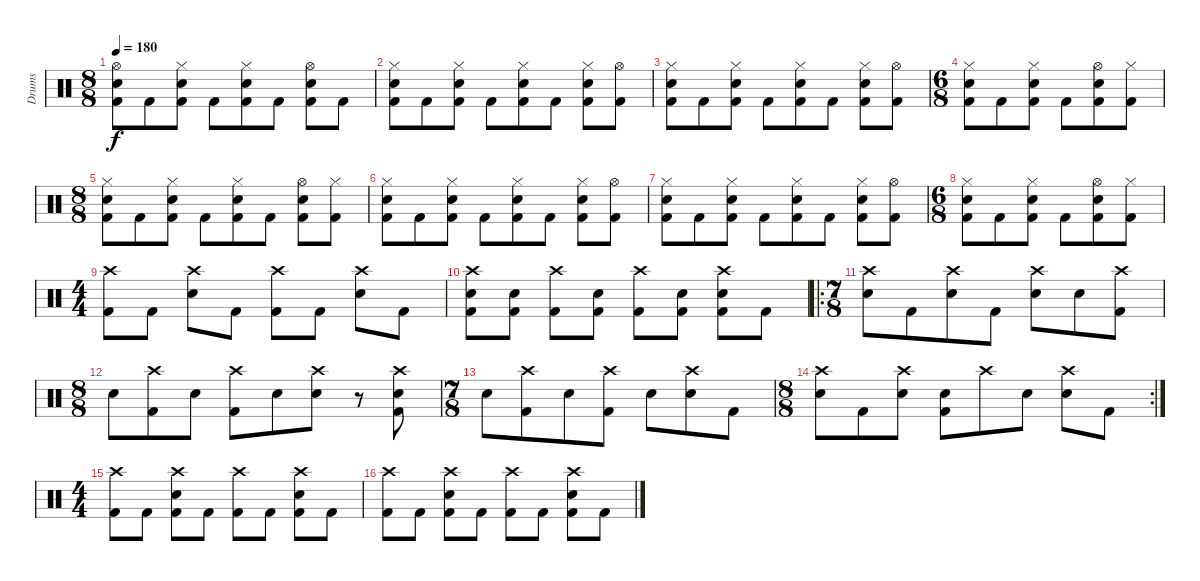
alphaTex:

\track ("Drums" "Drums") {instrument percussion}
\staff {score}
\articulation defaults
\ts (8 8)
\tempo 180
\clef neutral
\ks c
("Hi-Hat (open)" "Electric Snare (hit)" "Kick (hit) 2").8{dy f} "Kick (hit) 2".8 ("Hi-Hat (closed)" "Electric Snare (hit)" "Kick (hit) 2").8 "Kick (hit) 2".8 ("Hi-Hat (closed)" "Electric Snare (hit)" "Kick (hit) 2").8 "Kick (hit) 2".8 ("Hi-Hat (open)" "Electric Snare (hit)" "Kick (hit) 2").8 "Kick (hit) 2".8 |
("Hi-Hat (closed)" "Electric Snare (hit)" "Kick (hit) 2").8 "Kick (hit) 2".8 ("Hi-Hat (closed)" "Electric Snare (hit)" "Kick (hit) 2").8 "Kick (hit) 2".8 ("Hi-Hat (closed)" "Electric Snare (hit)" "Kick (hit) 2").8 "Kick (hit) 2".8 ("Hi-Hat (closed)" "Electric Snare (hit)" "Kick (hit) 2").8 ("Hi-Hat (open)" "Kick (hit) 2").8 |
("Hi-Hat (closed)" "Electric Snare (hit)" "Kick (hit) 2").8 "Kick (hit) 2".8 ("Hi-Hat (closed)" "Electric Snare (hit)" "Kick (hit) 2").8 "Kick (hit) 2".8 ("Hi-Hat (closed)" "Electric Snare (hit)" "Kick (hit) 2").8 "Kick (hit) 2".8 ("Hi-Hat (closed)" "Electric Snare (hit)" "Kick (hit) 2").8 ("Hi-Hat (open)" "Kick (hit) 2").8 |
\ts (6 8)
("Hi-Hat (closed)" "Electric Snare (hit)" "Kick (hit) 2").8 "Kick (hit) 2".8 ("Hi-Hat (closed)" "Electric Snare (hit)" "Kick (hit) 2").8 "Kick (hit) 2".8 ("Hi-Hat (open)" "Electric Snare (hit)" "Kick (hit) 2").8 ("Hi-Hat (closed)" "Kick (hit) 2").8 |
\ts (8 8)
("Hi-Hat (closed)" "Electric Snare (hit)" "Kick (hit) 2").8 "Kick (hit) 2".8 ("Hi-Hat (closed)" "Electric Snare (hit)" "Kick (hit) 2").8 "Kick (hit) 2".8 ("Hi-Hat (closed)" "Electric Snare (hit)" "Kick (hit) 2").8 "Kick (hit) 2".8 ("Hi-Hat (open)" "Electric Snare (hit)" "Kick (hit) 2").8 ("Hi-Hat (closed)" "Kick (hit) 2").8 |
("Hi-Hat (closed)" "Electric Snare (hit)" "Kick (hit) 2").8 "Kick (hit) 2".8 ("Hi-Hat (closed)" "Electric Snare (hit)" "Kick (hit) 2").8 "Kick (hit) 2".8 ("Hi-Hat (closed)" "Electric Snare (hit)" "Kick (hit) 2").8 "Kick (hit) 2".8 ("Hi-Hat (closed)" "Electric Snare (hit)" "Kick (hit) 2").8 ("Hi-Hat (open)" "Kick (hit) 2").8 |
("Hi-Hat (closed)" "Electric Snare (hit)" "Kick (hit) 2").8 "Kick (hit) 2".8 ("Hi-Hat (closed)" "Electric Snare (hit)" "Kick (hit) 2").8 "Kick (hit) 2".8 ("Hi-Hat (closed)" "Electric Snare (hit)" "Kick (hit) 2").8 "Kick (hit) 2".8 ("Hi-Hat (closed)" "Electric Snare (hit)" "Kick (hit) 2").8 ("Hi-Hat (open)" "Kick (hit) 2").8 |
\ts (6 8)
("Hi-Hat (closed)" "Electric Snare (hit)" "Kick (hit) 2").8 "Kick (hit) 2".8 ("Hi-Hat (closed)" "Electric Snare (hit)" "Kick (hit) 2").8 "Kick (hit) 2".8 ("Hi-Hat (open)" "Electric Snare (hit)" "Kick (hit) 2").8 ("Hi-Hat (closed)" "Kick (hit) 2").8 |
\ts (4 4)
("Crash high (hit)" "Kick (hit) 2").8 "Kick (hit) 2".8 ("Crash high (hit)" "Electric Snare (hit)").8 "Kick (hit) 2".8 ("Crash high (hit)" "Kick (hit) 2").8 "Kick (hit) 2".8 ("Crash high (hit)" "Electric Snare (hit)").8 "Kick (hit) 2".8 |
("Crash high (hit)" "Electric Snare (hit)" "Kick (hit) 2").8 ("Electric Snare (hit)" "Kick (hit) 2").8 ("Crash high (hit)" "Kick (hit) 2").8 ("Electric Snare (hit)" "Kick (hit) 2").8 ("Crash high (hit)" "Kick (hit) 2").8 ("Electric Snare (hit)" "Kick (hit) 2").8 ("Crash high (hit)" "Electric Snare (hit)" "Kick (hit) 2").8 "Kick (hit) 2".8 |
\ro
\ts (7 8)
("Crash high (hit)" "Electric Snare (hit)").8 "Kick (hit) 2".8 ("Crash high (hit)" "Electric Snare (hit)").8 "Kick (hit) 2".8 ("Crash high (hit)" "Electric Snare (hit)").8 "Electric Snare (hit)".8 ("Crash high (hit)" "Kick (hit) 2").8 |
\ts (8 8)
"Electric Snare (hit)".8 ("Crash high (hit)" "Kick (hit) 2").8 "Electric Snare (hit)".8 ("Crash high (hit)" "Kick (hit) 2").8 "Electric Snare (hit)".8 ("Crash high (hit)" "Electric Snare (hit)").8 r.8 ("Crash high (hit)" "Electric Snare (hit)" "Kick (hit) 2").8 |
\ts (7 8)
"Electric Snare (hit)".8 ("Crash high (hit)" "Kick (hit) 2").8 "Electric Snare (hit)".8 ("Crash high (hit)" "Kick (hit) 2").8 "Electric Snare (hit)".8 ("Crash high (hit)" "Electric Snare (hit)").8 "Kick (hit) 2".8 |
\rc 2
\ts (8 8)
("Crash high (hit)" "Electric Snare (hit)").8 "Kick (hit) 2".8 ("Crash high (hit)" "Electric Snare (hit)").8 ("Electric Snare (hit)" "Kick (hit) 2").8 "Crash high (hit)".8 "Electric Snare (hit)".8 ("Crash high (hit)" "Electric Snare (hit)").8 "Kick (hit) 2".8 |
\ts (4 4)
("Crash high (hit)" "Kick (hit) 2").8 "Kick (hit) 2".8 ("Crash high (hit)" "Electric Snare (hit)" "Kick (hit) 2").8 "Kick (hit) 2".8 ("Crash high (hit)" "Kick (hit) 2").8 "Kick (hit) 2".8 ("Crash high (hit)" "Electric Snare (hit)" "Kick (hit) 2").8 "Kick (hit) 2".8 |
("Crash high (hit)" "Kick (hit) 2").8 "Kick (hit) 2".8 ("Crash high (hit)" "Electric Snare (hit)" "Kick (hit) 2").8 "Kick (hit) 2".8 ("Crash high (hit)" "Kick (hit) 2").8 "Kick (hit) 2".8 ("Crash high (hit)" "Electric Snare (hit)" "Kick (hit) 2").8 "Kick (hit) 2".8
